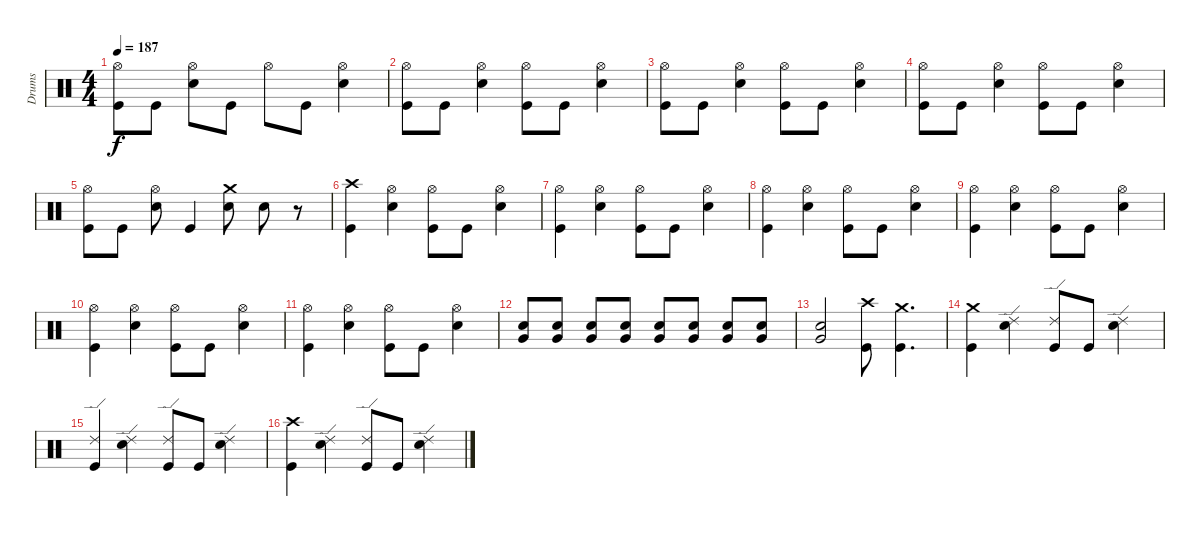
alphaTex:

\track ("Drums" "Drums") {instrument percussion}
\staff {score}
\articulation defaults
\ts (4 4)
\tempo 187
\clef neutral
\ks c
("Hi-Hat (open)" "Kick (hit)").8{dy f} "Kick (hit)".8 ("Hi-Hat (open)" "Snare (hit) 2").8 "Kick (hit)".8 "Hi-Hat (open)".8 "Kick (hit)".8 ("Hi-Hat (open)" "Snare (hit) 2").4 |
("Hi-Hat (open)" "Kick (hit)").8 "Kick (hit)".8 ("Hi-Hat (open)" "Snare (hit) 2").4 ("Hi-Hat (open)" "Kick (hit)").8 "Kick (hit)".8 ("Hi-Hat (open)" "Snare (hit) 2").4 |
("Hi-Hat (open)" "Kick (hit)").8 "Kick (hit)".8 ("Hi-Hat (open)" "Snare (hit) 2").4 ("Hi-Hat (open)" "Kick (hit)").8 "Kick (hit)".8 ("Hi-Hat (open)" "Snare (hit) 2").4 |
("Hi-Hat (open)" "Kick (hit)").8 "Kick (hit)".8 ("Hi-Hat (open)" "Snare (hit) 2").4 ("Hi-Hat (open)" "Kick (hit)").8 "Kick (hit)".8 ("Hi-Hat (open)" "Snare (hit) 2").4 |
("Hi-Hat (open)" "Kick (hit)").8 "Kick (hit)".8 ("Hi-Hat (open)" "Snare (hit) 2").8 "Kick (hit)".4 ("Crash medium (hit)" "Snare (hit) 2").8 "Snare (hit) 2".8 r.8 |
("Crash high (hit)" "Kick (hit)").4 ("Hi-Hat (open)" "Snare (hit) 2").4 ("Hi-Hat (open)" "Kick (hit)").8 "Kick (hit)".8 ("Hi-Hat (open)" "Snare (hit) 2").4 |
("Hi-Hat (open)" "Kick (hit)").4 ("Hi-Hat (open)" "Snare (hit) 2").4 ("Hi-Hat (open)" "Kick (hit)").8 "Kick (hit)".8 ("Hi-Hat (open)" "Snare (hit) 2").4 |
("Hi-Hat (open)" "Kick (hit)").4 ("Hi-Hat (open)" "Snare (hit) 2").4 ("Hi-Hat (open)" "Kick (hit)").8 "Kick (hit)".8 ("Hi-Hat (open)" "Snare (hit) 2").4 |
("Hi-Hat (open)" "Kick (hit)").4 ("Hi-Hat (open)" "Snare (hit) 2").4 ("Hi-Hat (open)" "Kick (hit)").8 "Kick (hit)".8 ("Hi-Hat (open)" "Snare (hit) 2").4 |
("Hi-Hat (open)" "Kick (hit)").4 ("Hi-Hat (open)" "Snare (hit) 2").4 ("Hi-Hat (open)" "Kick (hit)").8 "Kick (hit)".8 ("Hi-Hat (open)" "Snare (hit) 2").4 |
("Hi-Hat (open)" "Kick (hit)").4 ("Hi-Hat (open)" "Snare (hit) 2").4 ("Hi-Hat (open)" "Kick (hit)").8 "Kick (hit)".8 ("Hi-Hat (open)" "Snare (hit) 2").4 |
("Snare (hit) 2" "Very Low Tom (hit)").8{volume 8} ("Snare (hit) 2" "Very Low Tom (hit)").8{volume 13} ("Snare (hit) 2" "Very Low Tom (hit)").8 ("Snare (hit) 2" "Very Low Tom (hit)").8 ("Snare (hit) 2" "Very Low Tom (hit)").8 ("Snare (hit) 2" "Very Low Tom (hit)").8 ("Snare (hit) 2" "Very Low Tom (hit)").8 ("Snare (hit) 2" "Very Low Tom (hit)").8 |
("Snare (hit) 2" "Very Low Tom (hit)").2 ("Crash high (hit)" "Kick (hit)").8 ("Crash medium (hit)" "Kick (hit)").4{d} |
("Crash medium (hit)" "Kick (hit)").4 ("Ride (edge) 2" "Snare (hit) 2").4 ("Ride (edge) 2" "Kick (hit)").8 "Kick (hit)".8 ("Ride (edge) 2" "Snare (hit) 2").4 |
("Ride (edge) 2" "Kick (hit)").4 ("Ride (edge) 2" "Snare (hit) 2").4 ("Ride (edge) 2" "Kick (hit)").8 "Kick (hit)".8 ("Ride (edge) 2" "Snare (hit) 2").4 |
("Crash high (hit)" "Kick (hit)").4 ("Ride (edge) 2" "Snare (hit) 2").4 ("Ride (edge) 2" "Kick (hit)").8 "Kick (hit)".8 ("Ride (edge) 2" "Snare (hit) 2").4
